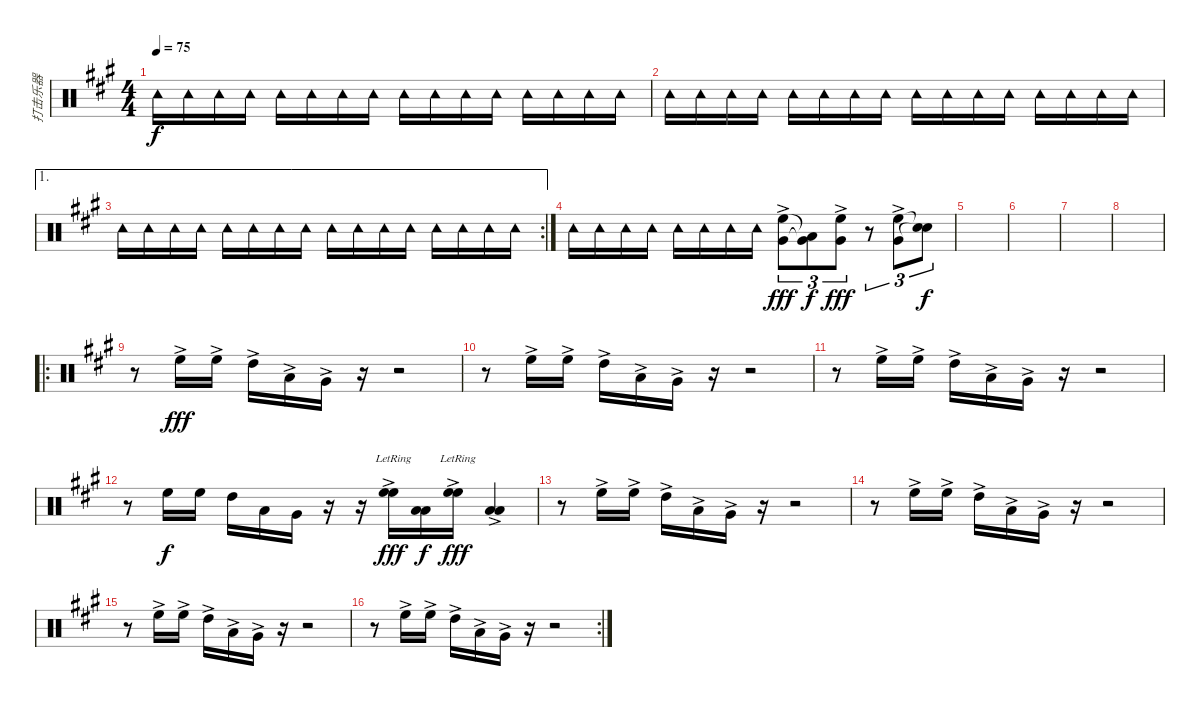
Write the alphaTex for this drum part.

\track ("打击乐器" "打击乐器") {instrument percussion}
\staff {score}
\articulation defaults
\ts (4 4)
\tempo 75
\clef neutral
\ks a "Tambourine (hit)".16{dy f} "Tambourine (hit)".16 "Tambourine (hit)".16 "Tambourine (hit)".16 "Tambourine (hit)".16 "Tambourine (hit)".16 "Tambourine (hit)".16 "Tambourine (hit)".16 "Tambourine (hit)".16 "Tambourine (hit)".16 "Tambourine (hit)".16 "Tambourine (hit)".16 "Tambourine (hit)".16 "Tambourine (hit)".16 "Tambourine (hit)".16 "Tambourine (hit)".16
|
"Tambourine (hit)".16 "Tambourine (hit)".16 "Tambourine (hit)".16 "Tambourine (hit)".16 "Tambourine (hit)".16 "Tambourine (hit)".16 "Tambourine (hit)".16 "Tambourine (hit)".16 "Tambourine (hit)".16 "Tambourine (hit)".16 "Tambourine (hit)".16 "Tambourine (hit)".16 "Tambourine (hit)".16 "Tambourine (hit)".16 "Tambourine (hit)".16 "Tambourine (hit)".16 |
\ae 1
\rc 2 "Tambourine (hit)".16 "Tambourine (hit)".16 "Tambourine (hit)".16 "Tambourine (hit)".16 "Tambourine (hit)".16 "Tambourine (hit)".16 "Tambourine (hit)".16 "Tambourine (hit)".16 "Tambourine (hit)".16 "Tambourine (hit)".16 "Tambourine (hit)".16 "Tambourine (hit)".16 "Tambourine (hit)".16 "Tambourine (hit)".16 "Tambourine (hit)".16 "Tambourine (hit)".16
|
"Tambourine (hit)".16 "Tambourine (hit)".16 "Tambourine (hit)".16 "Tambourine (hit)".16 "Tambourine (hit)".16 "Tambourine (hit)".16 "Tambourine (hit)".16 "Tambourine (hit)".16 ("Very Low Tom (hit)" "High Floor Tom (hit)"{ac}).8{tu (3 2) dy fff} ("Very Low Tom (hit)"{t} "Low Tom (hit)"{t}).8{tu (3 2) dy f} ("Very Low Tom (hit)" "High Floor Tom (hit)"{ac}).8{tu (3 2) dy fff} r.8{tu (3 2)} ("Very Low Tom (hit)" "High Floor Tom (hit)"{ac}).8{tu (3 2)} ("Snare (hit)"{t} "Snare (hit)"{t}).8{tu (3 2) dy f} |
|
|
|
|
\ro
r.8 "High Floor Tom (hit)"{ac}.16{dy fff} "High Floor Tom (hit)"{ac}.16 "High Tom (hit)"{ac}.16 "Low Tom (hit)"{ac}.16 "Very Low Tom (hit)"{ac}.16 r.16 r.2 |
r.8 "High Floor Tom (hit)"{ac}.16 "High Floor Tom (hit)"{ac}.16 "High Tom (hit)"{ac}.16 "Low Tom (hit)"{ac}.16 "Very Low Tom (hit)"{ac}.16 r.16 r.2 |
r.8 "High Floor Tom (hit)"{ac}.16 "High Floor Tom (hit)"{ac}.16 "High Tom (hit)"{ac}.16 "Low Tom (hit)"{ac}.16 "Very Low Tom (hit)"{ac}.16 r.16 r.2 |
r.8 "High Floor Tom (hit)".16{dy f} "High Floor Tom (hit)".16 "High Tom (hit)".16 "Low Tom (hit)".16 "Very Low Tom (hit)".16 r.16 r.16 ("High Floor Tom (hit)"{ac lr} "High Floor Tom (hit)"{lr}).16{dy fff} ("Low Tom (hit)" "Low Tom (hit)").16{dy f} ("High Floor Tom (hit)"{ac lr} "High Floor Tom (hit)"{ac lr}).16{dy fff} ("Low Tom (hit)"{ac} "Low Tom (hit)").4 |
r.8 "High Floor Tom (hit)"{ac}.16 "High Floor Tom (hit)"{ac}.16 "High Tom (hit)"{ac}.16 "Low Tom (hit)"{ac}.16 "Very Low Tom (hit)"{ac}.16 r.16 r.2 |
r.8 "High Floor Tom (hit)"{ac}.16 "High Floor Tom (hit)"{ac}.16 "High Tom (hit)"{ac}.16 "Low Tom (hit)"{ac}.16 "Very Low Tom (hit)"{ac}.16 r.16 r.2 |
r.8 "High Floor Tom (hit)"{ac}.16 "High Floor Tom (hit)"{ac}.16 "High Tom (hit)"{ac}.16 "Low Tom (hit)"{ac}.16 "Very Low Tom (hit)"{ac}.16 r.16 r.2 |
\rc 2
r.8 "High Floor Tom (hit)"{ac}.16 "High Floor Tom (hit)"{ac}.16 "High Tom (hit)"{ac}.16 "Low Tom (hit)"{ac}.16 "Very Low Tom (hit)"{ac}.16 r.16 r.2
